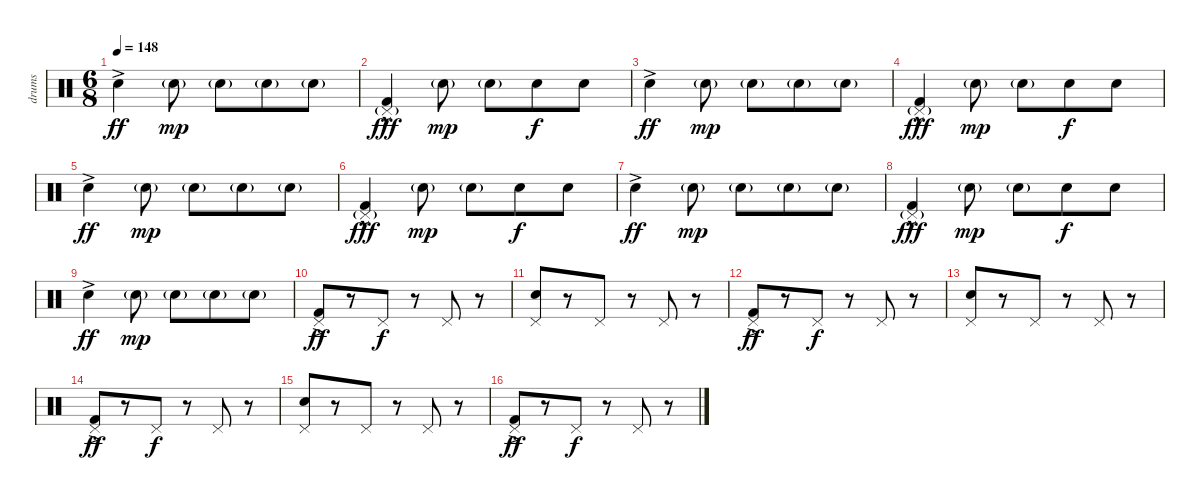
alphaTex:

\track ("drums" "drums") {instrument percussion}
\staff {score}
\articulation defaults
\ts (6 8)
\tempo 148
\clef neutral
\ks c "Electric Snare (hit)"{ac}.4{dy ff} "Electric Snare (hit)"{g}.8{dy mp} "Electric Snare (hit)"{g}.8 "Electric Snare (hit)"{g}.8 "Electric Snare (hit)"{g}.8
|
("Pedal Hi-Hat (hit)"{g} "Kick (hit) 2"{hac}).4{dy fff} "Electric Snare (hit)"{g}.8{dy mp} "Electric Snare (hit)"{g}.8 "Electric Snare (hit)".8{dy f} "Electric Snare (hit)".8 |
"Electric Snare (hit)"{ac}.4{dy ff} "Electric Snare (hit)"{g}.8{dy mp} "Electric Snare (hit)"{g}.8 "Electric Snare (hit)"{g}.8 "Electric Snare (hit)"{g}.8 |
("Pedal Hi-Hat (hit)"{g} "Kick (hit) 2"{hac}).4{dy fff} "Electric Snare (hit)"{g}.8{dy mp} "Electric Snare (hit)"{g}.8 "Electric Snare (hit)".8{dy f} "Electric Snare (hit)".8 |
"Electric Snare (hit)"{ac}.4{dy ff} "Electric Snare (hit)"{g}.8{dy mp} "Electric Snare (hit)"{g}.8 "Electric Snare (hit)"{g}.8 "Electric Snare (hit)"{g}.8 |
("Pedal Hi-Hat (hit)"{g} "Kick (hit) 2"{hac}).4{dy fff} "Electric Snare (hit)"{g}.8{dy mp} "Electric Snare (hit)"{g}.8 "Electric Snare (hit)".8{dy f} "Electric Snare (hit)".8 |
"Electric Snare (hit)"{ac}.4{dy ff} "Electric Snare (hit)"{g}.8{dy mp} "Electric Snare (hit)"{g}.8 "Electric Snare (hit)"{g}.8 "Electric Snare (hit)"{g}.8 |
("Pedal Hi-Hat (hit)"{g} "Kick (hit) 2"{hac}).4{dy fff} "Electric Snare (hit)"{g}.8{dy mp} "Electric Snare (hit)"{g}.8 "Electric Snare (hit)".8{dy f} "Electric Snare (hit)".8 |
"Electric Snare (hit)"{ac}.4{dy ff} "Electric Snare (hit)"{g}.8{dy mp} "Electric Snare (hit)"{g}.8 "Electric Snare (hit)"{g}.8 "Electric Snare (hit)"{g}.8 |
("Pedal Hi-Hat (hit)" "Kick (hit) 2"{ac}).8{dy ff} r.8 "Pedal Hi-Hat (hit)".8{dy f} r.8 "Pedal Hi-Hat (hit)".8 r.8 |
("Pedal Hi-Hat (hit)" "Electric Snare (hit)").8 r.8 "Pedal Hi-Hat (hit)".8 r.8 "Pedal Hi-Hat (hit)".8 r.8 |
("Pedal Hi-Hat (hit)" "Kick (hit) 2"{ac}).8{dy ff} r.8 "Pedal Hi-Hat (hit)".8{dy f} r.8 "Pedal Hi-Hat (hit)".8 r.8 |
("Pedal Hi-Hat (hit)" "Electric Snare (hit)").8 r.8 "Pedal Hi-Hat (hit)".8 r.8 "Pedal Hi-Hat (hit)".8 r.8 |
("Pedal Hi-Hat (hit)" "Kick (hit) 2"{ac}).8{dy ff} r.8 "Pedal Hi-Hat (hit)".8{dy f} r.8 "Pedal Hi-Hat (hit)".8 r.8 |
("Pedal Hi-Hat (hit)" "Electric Snare (hit)").8 r.8 "Pedal Hi-Hat (hit)".8 r.8 "Pedal Hi-Hat (hit)".8 r.8 |
("Pedal Hi-Hat (hit)" "Kick (hit) 2"{ac}).8{dy ff} r.8 "Pedal Hi-Hat (hit)".8{dy f} r.8 "Pedal Hi-Hat (hit)".8 r.8
